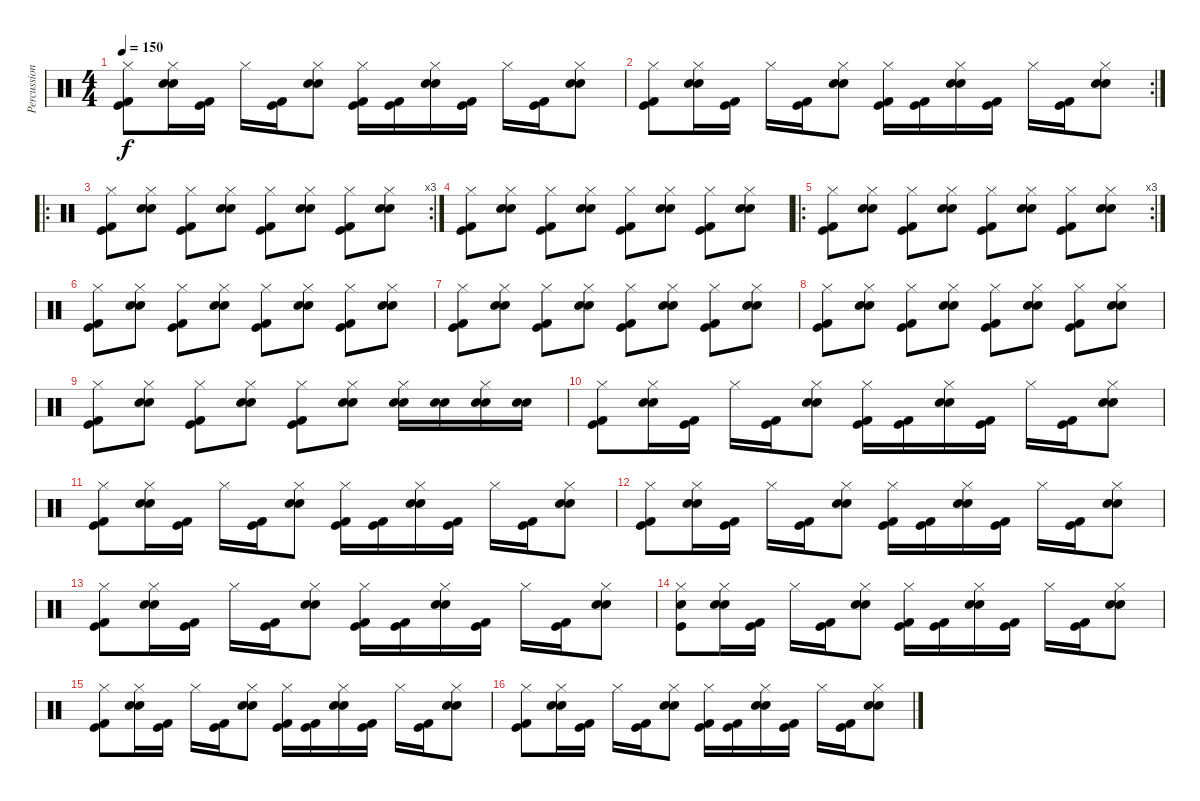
\track ("Percussions" "Percussion") {instrument percussion}
\staff {score}
\articulation defaults
\ts (4 4)
\tempo 150
\clef neutral
\ks c
("Hi-Hat (closed)" "Kick (hit)" "Kick (hit) 2").8{dy f} ("Hi-Hat (closed)" "Snare (hit) 2" "Electric Snare (hit)").16 ("Kick (hit)" "Kick (hit) 2").16 "Hi-Hat (closed)".16 ("Kick (hit)" "Kick (hit) 2").16 ("Hi-Hat (closed)" "Snare (hit) 2" "Electric Snare (hit)").8 ("Hi-Hat (closed)" "Kick (hit)" "Kick (hit) 2").16 ("Kick (hit)" "Kick (hit) 2").16 ("Hi-Hat (closed)" "Snare (hit) 2" "Electric Snare (hit)").16 ("Kick (hit)" "Kick (hit) 2").16 "Hi-Hat (closed)".16 ("Kick (hit)" "Kick (hit) 2").16 ("Hi-Hat (closed)" "Snare (hit) 2" "Electric Snare (hit)").8 |
\rc 2
("Hi-Hat (closed)" "Kick (hit)" "Kick (hit) 2").8 ("Hi-Hat (closed)" "Snare (hit) 2" "Electric Snare (hit)").16 ("Kick (hit)" "Kick (hit) 2").16 "Hi-Hat (closed)".16 ("Kick (hit)" "Kick (hit) 2").16 ("Hi-Hat (closed)" "Snare (hit) 2" "Electric Snare (hit)").8 ("Hi-Hat (closed)" "Kick (hit)" "Kick (hit) 2").16 ("Kick (hit)" "Kick (hit) 2").16 ("Hi-Hat (closed)" "Snare (hit) 2" "Electric Snare (hit)").16 ("Kick (hit)" "Kick (hit) 2").16 "Hi-Hat (closed)".16 ("Kick (hit)" "Kick (hit) 2").16 ("Hi-Hat (closed)" "Snare (hit) 2" "Electric Snare (hit)").8 |
\ro
\rc 3
("Hi-Hat (closed)" "Kick (hit)" "Kick (hit) 2").8 ("Hi-Hat (closed)" "Snare (hit) 2" "Electric Snare (hit)").8 ("Hi-Hat (closed)" "Kick (hit)" "Kick (hit) 2").8 ("Hi-Hat (closed)" "Snare (hit) 2" "Electric Snare (hit)").8 ("Hi-Hat (closed)" "Kick (hit)" "Kick (hit) 2").8 ("Hi-Hat (closed)" "Snare (hit) 2" "Electric Snare (hit)").8 ("Hi-Hat (closed)" "Kick (hit)" "Kick (hit) 2").8 ("Hi-Hat (closed)" "Snare (hit) 2" "Electric Snare (hit)").8 |
("Hi-Hat (closed)" "Kick (hit)" "Kick (hit) 2").8 ("Hi-Hat (closed)" "Snare (hit) 2" "Electric Snare (hit)").8 ("Hi-Hat (closed)" "Kick (hit)" "Kick (hit) 2").8 ("Hi-Hat (closed)" "Snare (hit) 2" "Electric Snare (hit)").8 ("Hi-Hat (closed)" "Kick (hit)" "Kick (hit) 2").8 ("Hi-Hat (closed)" "Snare (hit) 2" "Electric Snare (hit)").8 ("Hi-Hat (closed)" "Kick (hit)" "Kick (hit) 2").8 ("Hi-Hat (closed)" "Snare (hit) 2" "Electric Snare (hit)").8 |
\ro
\rc 3
("Hi-Hat (closed)" "Kick (hit)" "Kick (hit) 2").8 ("Hi-Hat (closed)" "Snare (hit) 2" "Electric Snare (hit)").8 ("Hi-Hat (closed)" "Kick (hit)" "Kick (hit) 2").8 ("Hi-Hat (closed)" "Snare (hit) 2" "Electric Snare (hit)").8 ("Hi-Hat (closed)" "Kick (hit)" "Kick (hit) 2").8 ("Hi-Hat (closed)" "Snare (hit) 2" "Electric Snare (hit)").8 ("Hi-Hat (closed)" "Kick (hit)" "Kick (hit) 2").8 ("Hi-Hat (closed)" "Snare (hit) 2" "Electric Snare (hit)").8 |
("Hi-Hat (closed)" "Kick (hit)" "Kick (hit) 2").8 ("Hi-Hat (closed)" "Snare (hit) 2" "Electric Snare (hit)").8 ("Hi-Hat (closed)" "Kick (hit)" "Kick (hit) 2").8 ("Hi-Hat (closed)" "Snare (hit) 2" "Electric Snare (hit)").8 ("Hi-Hat (closed)" "Kick (hit)" "Kick (hit) 2").8 ("Hi-Hat (closed)" "Snare (hit) 2" "Electric Snare (hit)").8 ("Hi-Hat (closed)" "Kick (hit)" "Kick (hit) 2").8 ("Hi-Hat (closed)" "Snare (hit) 2" "Electric Snare (hit)").8 |
("Hi-Hat (closed)" "Kick (hit)" "Kick (hit) 2").8 ("Hi-Hat (closed)" "Snare (hit) 2" "Electric Snare (hit)").8 ("Hi-Hat (closed)" "Kick (hit)" "Kick (hit) 2").8 ("Hi-Hat (closed)" "Snare (hit) 2" "Electric Snare (hit)").8 ("Hi-Hat (closed)" "Kick (hit)" "Kick (hit) 2").8 ("Hi-Hat (closed)" "Snare (hit) 2" "Electric Snare (hit)").8 ("Hi-Hat (closed)" "Kick (hit)" "Kick (hit) 2").8 ("Hi-Hat (closed)" "Snare (hit) 2" "Electric Snare (hit)").8 |
("Hi-Hat (closed)" "Kick (hit)" "Kick (hit) 2").8 ("Hi-Hat (closed)" "Snare (hit) 2" "Electric Snare (hit)").8 ("Hi-Hat (closed)" "Kick (hit)" "Kick (hit) 2").8 ("Hi-Hat (closed)" "Snare (hit) 2" "Electric Snare (hit)").8 ("Hi-Hat (closed)" "Kick (hit)" "Kick (hit) 2").8 ("Hi-Hat (closed)" "Snare (hit) 2" "Electric Snare (hit)").8 ("Hi-Hat (closed)" "Kick (hit)" "Kick (hit) 2").8 ("Hi-Hat (closed)" "Snare (hit) 2" "Electric Snare (hit)").8 |
("Hi-Hat (closed)" "Kick (hit)" "Kick (hit) 2").8 ("Hi-Hat (closed)" "Snare (hit) 2" "Electric Snare (hit)").8 ("Hi-Hat (closed)" "Kick (hit)" "Kick (hit) 2").8 ("Hi-Hat (closed)" "Snare (hit) 2" "Electric Snare (hit)").8 ("Hi-Hat (closed)" "Kick (hit)" "Kick (hit) 2").8 ("Hi-Hat (closed)" "Snare (hit) 2" "Electric Snare (hit)").8 ("Hi-Hat (closed)" "Snare (hit) 2" "Electric Snare (hit)").16 ("Snare (hit) 2" "Electric Snare (hit)").16 ("Hi-Hat (closed)" "Snare (hit) 2" "Electric Snare (hit)").16 ("Snare (hit) 2" "Electric Snare (hit)").16 |
("Hi-Hat (closed)" "Kick (hit)" "Kick (hit) 2").8 ("Hi-Hat (closed)" "Snare (hit) 2" "Electric Snare (hit)").16 ("Kick (hit)" "Kick (hit) 2").16 "Hi-Hat (closed)".16 ("Kick (hit)" "Kick (hit) 2").16 ("Hi-Hat (closed)" "Snare (hit) 2" "Electric Snare (hit)").8 ("Hi-Hat (closed)" "Kick (hit)" "Kick (hit) 2").16 ("Kick (hit)" "Kick (hit) 2").16 ("Hi-Hat (closed)" "Snare (hit) 2" "Electric Snare (hit)").16 ("Kick (hit)" "Kick (hit) 2").16 "Hi-Hat (closed)".16 ("Kick (hit)" "Kick (hit) 2").16 ("Hi-Hat (closed)" "Snare (hit) 2" "Electric Snare (hit)").8 |
("Hi-Hat (closed)" "Kick (hit)" "Kick (hit) 2").8 ("Hi-Hat (closed)" "Snare (hit) 2" "Electric Snare (hit)").16 ("Kick (hit)" "Kick (hit) 2").16 "Hi-Hat (closed)".16 ("Kick (hit)" "Kick (hit) 2").16 ("Hi-Hat (closed)" "Snare (hit) 2" "Electric Snare (hit)").8 ("Hi-Hat (closed)" "Kick (hit)" "Kick (hit) 2").16 ("Kick (hit)" "Kick (hit) 2").16 ("Hi-Hat (closed)" "Snare (hit) 2" "Electric Snare (hit)").16 ("Kick (hit)" "Kick (hit) 2").16 "Hi-Hat (closed)".16 ("Kick (hit)" "Kick (hit) 2").16 ("Hi-Hat (closed)" "Snare (hit) 2" "Electric Snare (hit)").8 |
("Hi-Hat (closed)" "Kick (hit)" "Kick (hit) 2").8 ("Hi-Hat (closed)" "Snare (hit) 2" "Electric Snare (hit)").16 ("Kick (hit)" "Kick (hit) 2").16 "Hi-Hat (closed)".16 ("Kick (hit)" "Kick (hit) 2").16 ("Hi-Hat (closed)" "Snare (hit) 2" "Electric Snare (hit)").8 ("Hi-Hat (closed)" "Kick (hit)" "Kick (hit) 2").16 ("Kick (hit)" "Kick (hit) 2").16 ("Hi-Hat (closed)" "Snare (hit) 2" "Electric Snare (hit)").16 ("Kick (hit)" "Kick (hit) 2").16 "Hi-Hat (closed)".16 ("Kick (hit)" "Kick (hit) 2").16 ("Hi-Hat (closed)" "Snare (hit) 2" "Electric Snare (hit)").8 |
("Hi-Hat (closed)" "Kick (hit)" "Kick (hit) 2").8 ("Hi-Hat (closed)" "Snare (hit) 2" "Electric Snare (hit)").16 ("Kick (hit)" "Kick (hit) 2").16 "Hi-Hat (closed)".16 ("Kick (hit)" "Kick (hit) 2").16 ("Hi-Hat (closed)" "Snare (hit) 2" "Electric Snare (hit)").8 ("Hi-Hat (closed)" "Kick (hit)" "Kick (hit) 2").16 ("Kick (hit)" "Kick (hit) 2").16 ("Hi-Hat (closed)" "Snare (hit) 2" "Electric Snare (hit)").16 ("Kick (hit)" "Kick (hit) 2").16 "Hi-Hat (closed)".16 ("Kick (hit)" "Kick (hit) 2").16 ("Hi-Hat (closed)" "Snare (hit) 2" "Electric Snare (hit)").8 |
("Hi-Hat (closed)" "Kick (hit)" "Snare (hit)").8 ("Hi-Hat (closed)" "Snare (hit) 2" "Electric Snare (hit)").16 ("Kick (hit)" "Kick (hit) 2").16 "Hi-Hat (closed)".16 ("Kick (hit)" "Kick (hit) 2").16 ("Hi-Hat (closed)" "Snare (hit) 2" "Electric Snare (hit)").8 ("Hi-Hat (closed)" "Kick (hit)" "Kick (hit) 2").16 ("Kick (hit)" "Kick (hit) 2").16 ("Hi-Hat (closed)" "Snare (hit) 2" "Electric Snare (hit)").16 ("Kick (hit)" "Kick (hit) 2").16 "Hi-Hat (closed)".16 ("Kick (hit)" "Kick (hit) 2").16 ("Hi-Hat (closed)" "Snare (hit) 2" "Electric Snare (hit)").8 |
("Hi-Hat (closed)" "Kick (hit)" "Kick (hit) 2").8 ("Hi-Hat (closed)" "Snare (hit) 2" "Electric Snare (hit)").16 ("Kick (hit)" "Kick (hit) 2").16 "Hi-Hat (closed)".16 ("Kick (hit)" "Kick (hit) 2").16 ("Hi-Hat (closed)" "Snare (hit) 2" "Electric Snare (hit)").8 ("Hi-Hat (closed)" "Kick (hit)" "Kick (hit) 2").16 ("Kick (hit)" "Kick (hit) 2").16 ("Hi-Hat (closed)" "Snare (hit) 2" "Electric Snare (hit)").16 ("Kick (hit)" "Kick (hit) 2").16 "Hi-Hat (closed)".16 ("Kick (hit)" "Kick (hit) 2").16 ("Hi-Hat (closed)" "Snare (hit) 2" "Electric Snare (hit)").8 |
("Hi-Hat (closed)" "Kick (hit)" "Kick (hit) 2").8 ("Hi-Hat (closed)" "Snare (hit) 2" "Electric Snare (hit)").16 ("Kick (hit)" "Kick (hit) 2").16 "Hi-Hat (closed)".16 ("Kick (hit)" "Kick (hit) 2").16 ("Hi-Hat (closed)" "Snare (hit) 2" "Electric Snare (hit)").8 ("Hi-Hat (closed)" "Kick (hit)" "Kick (hit) 2").16 ("Kick (hit)" "Kick (hit) 2").16 ("Hi-Hat (closed)" "Snare (hit) 2" "Electric Snare (hit)").16 ("Kick (hit)" "Kick (hit) 2").16 "Hi-Hat (closed)".16 ("Kick (hit)" "Kick (hit) 2").16 ("Hi-Hat (closed)" "Snare (hit) 2" "Electric Snare (hit)").8
